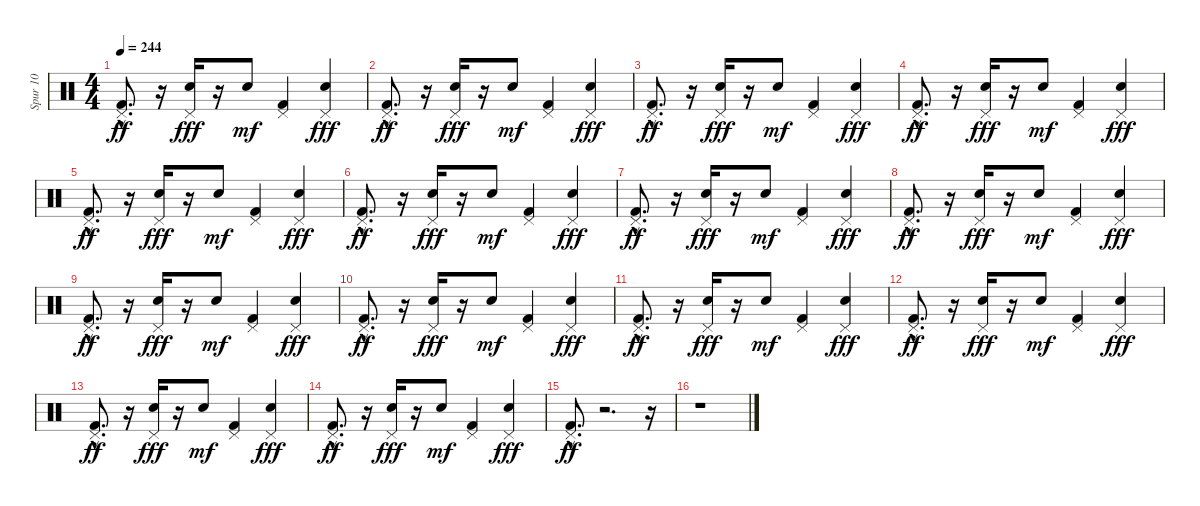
\track ("Spur 10" "Spur 10") {instrument percussion}
\staff {score}
\articulation defaults
\ts (4 4)
\tempo 244
\clef neutral
\ks c
("Pedal Hi-Hat (hit)" "Kick (hit) 2"{hac}).8{d dy ff} r.16 ("Pedal Hi-Hat (hit)" "Electric Snare (hit)").16{dy fff} r.16 "Electric Snare (hit)".8{dy mf} ("Pedal Hi-Hat (hit)" "Kick (hit) 2").4 ("Pedal Hi-Hat (hit)" "Electric Snare (hit)").4{dy fff} |
("Pedal Hi-Hat (hit)" "Kick (hit) 2"{hac}).8{d dy ff} r.16 ("Pedal Hi-Hat (hit)" "Electric Snare (hit)").16{dy fff} r.16 "Electric Snare (hit)".8{dy mf} ("Pedal Hi-Hat (hit)" "Kick (hit) 2").4 ("Pedal Hi-Hat (hit)" "Electric Snare (hit)").4{dy fff} |
("Pedal Hi-Hat (hit)" "Kick (hit) 2"{hac}).8{d dy ff} r.16 ("Pedal Hi-Hat (hit)" "Electric Snare (hit)").16{dy fff} r.16 "Electric Snare (hit)".8{dy mf} ("Pedal Hi-Hat (hit)" "Kick (hit) 2").4 ("Pedal Hi-Hat (hit)" "Electric Snare (hit)").4{dy fff} |
("Pedal Hi-Hat (hit)" "Kick (hit) 2"{hac}).8{d dy ff} r.16 ("Pedal Hi-Hat (hit)" "Electric Snare (hit)").16{dy fff} r.16 "Electric Snare (hit)".8{dy mf} ("Pedal Hi-Hat (hit)" "Kick (hit) 2").4 ("Pedal Hi-Hat (hit)" "Electric Snare (hit)").4{dy fff} |
("Pedal Hi-Hat (hit)" "Kick (hit) 2"{hac}).8{d dy ff} r.16 ("Pedal Hi-Hat (hit)" "Electric Snare (hit)").16{dy fff} r.16 "Electric Snare (hit)".8{dy mf} ("Pedal Hi-Hat (hit)" "Kick (hit) 2").4 ("Pedal Hi-Hat (hit)" "Electric Snare (hit)").4{dy fff} |
("Pedal Hi-Hat (hit)" "Kick (hit) 2"{hac}).8{d dy ff} r.16 ("Pedal Hi-Hat (hit)" "Electric Snare (hit)").16{dy fff} r.16 "Electric Snare (hit)".8{dy mf} ("Pedal Hi-Hat (hit)" "Kick (hit) 2").4 ("Pedal Hi-Hat (hit)" "Electric Snare (hit)").4{dy fff} |
("Pedal Hi-Hat (hit)" "Kick (hit) 2"{hac}).8{d dy ff} r.16 ("Pedal Hi-Hat (hit)" "Electric Snare (hit)").16{dy fff} r.16 "Electric Snare (hit)".8{dy mf} ("Pedal Hi-Hat (hit)" "Kick (hit) 2").4 ("Pedal Hi-Hat (hit)" "Electric Snare (hit)").4{dy fff} |
("Pedal Hi-Hat (hit)" "Kick (hit) 2"{hac}).8{d dy ff} r.16 ("Pedal Hi-Hat (hit)" "Electric Snare (hit)").16{dy fff} r.16 "Electric Snare (hit)".8{dy mf} ("Pedal Hi-Hat (hit)" "Kick (hit) 2").4 ("Pedal Hi-Hat (hit)" "Electric Snare (hit)").4{dy fff} |
("Pedal Hi-Hat (hit)" "Kick (hit) 2"{hac}).8{d dy ff} r.16 ("Pedal Hi-Hat (hit)" "Electric Snare (hit)").16{dy fff} r.16 "Electric Snare (hit)".8{dy mf} ("Pedal Hi-Hat (hit)" "Kick (hit) 2").4 ("Pedal Hi-Hat (hit)" "Electric Snare (hit)").4{dy fff} |
("Pedal Hi-Hat (hit)" "Kick (hit) 2"{hac}).8{d dy ff} r.16 ("Pedal Hi-Hat (hit)" "Electric Snare (hit)").16{dy fff} r.16 "Electric Snare (hit)".8{dy mf} ("Pedal Hi-Hat (hit)" "Kick (hit) 2").4 ("Pedal Hi-Hat (hit)" "Electric Snare (hit)").4{dy fff} |
("Pedal Hi-Hat (hit)" "Kick (hit) 2"{hac}).8{d dy ff} r.16 ("Pedal Hi-Hat (hit)" "Electric Snare (hit)").16{dy fff} r.16 "Electric Snare (hit)".8{dy mf} ("Pedal Hi-Hat (hit)" "Kick (hit) 2").4 ("Pedal Hi-Hat (hit)" "Electric Snare (hit)").4{dy fff} |
("Pedal Hi-Hat (hit)" "Kick (hit) 2"{hac}).8{d dy ff} r.16 ("Pedal Hi-Hat (hit)" "Electric Snare (hit)").16{dy fff} r.16 "Electric Snare (hit)".8{dy mf} ("Pedal Hi-Hat (hit)" "Kick (hit) 2").4 ("Pedal Hi-Hat (hit)" "Electric Snare (hit)").4{dy fff} |
("Pedal Hi-Hat (hit)" "Kick (hit) 2"{hac}).8{d dy ff} r.16 ("Pedal Hi-Hat (hit)" "Electric Snare (hit)").16{dy fff} r.16 "Electric Snare (hit)".8{dy mf} ("Pedal Hi-Hat (hit)" "Kick (hit) 2").4 ("Pedal Hi-Hat (hit)" "Electric Snare (hit)").4{dy fff} |
("Pedal Hi-Hat (hit)" "Kick (hit) 2"{hac}).8{d dy ff} r.16 ("Pedal Hi-Hat (hit)" "Electric Snare (hit)").16{dy fff} r.16 "Electric Snare (hit)".8{dy mf} ("Pedal Hi-Hat (hit)" "Kick (hit) 2").4 ("Pedal Hi-Hat (hit)" "Electric Snare (hit)").4{dy fff} |
("Pedal Hi-Hat (hit)" "Kick (hit) 2"{hac}).8{d dy ff} r.2{d} r.16 |
r.1
